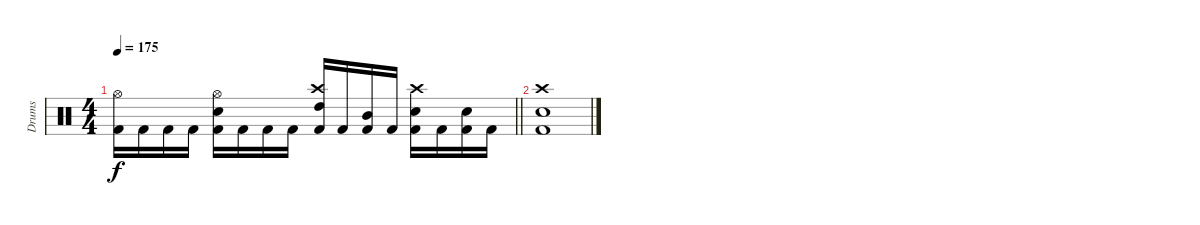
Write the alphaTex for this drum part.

\track ("Drums" "Drums") {instrument percussion}
\staff {score}
\articulation defaults
\ts (4 4)
\tempo 175
\clef neutral
\barLineRight lightlight
\ks c
("Hi-Hat (open)" "Kick (hit) 2").16{dy f} "Kick (hit) 2".16 "Kick (hit) 2".16 "Kick (hit) 2".16 ("Hi-Hat (open)" "Snare (hit) 2" "Kick (hit) 2").16 "Kick (hit) 2".16 "Kick (hit) 2".16 "Kick (hit) 2".16 ("Crash high (hit)" "High Tom (hit)" "Kick (hit) 2").16 "Kick (hit) 2".16 ("Mid Tom (hit)" "Kick (hit) 2").16 "Kick (hit) 2".16 ("Crash high (hit)" "Snare (hit) 2" "Kick (hit) 2").16 "Kick (hit) 2".16 ("Snare (hit) 2" "Kick (hit) 2").16 "Kick (hit) 2".16 |
("Crash high (hit)" "Snare (hit) 2" "Kick (hit) 2").1
